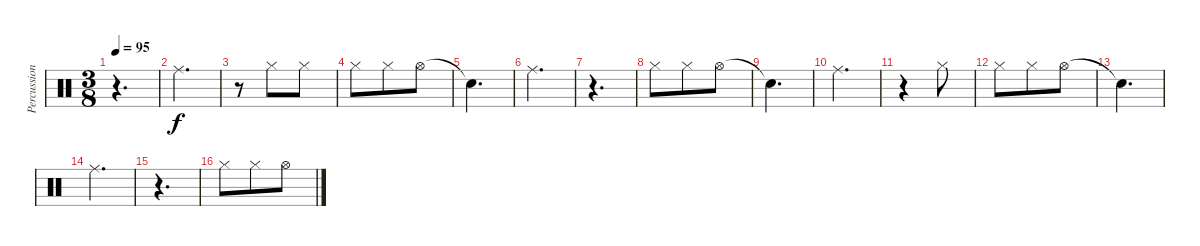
\track ("Percussion" "Percussion") {instrument percussion}
\staff {score}
\articulation defaults
\ts (3 8)
\tempo 95
\clef neutral
\ks c
r.4{d dy f} |
"Ride (middle)".4{d} |
r.8 "Hi-Hat (closed)".8 "Hi-Hat (closed)".8 |
"Hi-Hat (closed)".8 "Hi-Hat (closed)".8 "Hi-Hat (open)".8 |
"Snare (hit)"{t}.4{d} |
"Ride (middle)".4{d} |
r.4{d} |
"Hi-Hat (closed)".8 "Hi-Hat (closed)".8 "Hi-Hat (open)".8 |
"Snare (hit)"{t}.4{d} |
"Ride (middle)".4{d} |
r.4 "Hi-Hat (closed)".8 |
"Hi-Hat (closed)".8 "Hi-Hat (closed)".8 "Hi-Hat (open)".8 |
"Snare (hit)"{t}.4{d} |
"Ride (middle)".4{d} |
r.4{d} |
"Hi-Hat (closed)".8 "Hi-Hat (closed)".8 "Hi-Hat (open)".8
